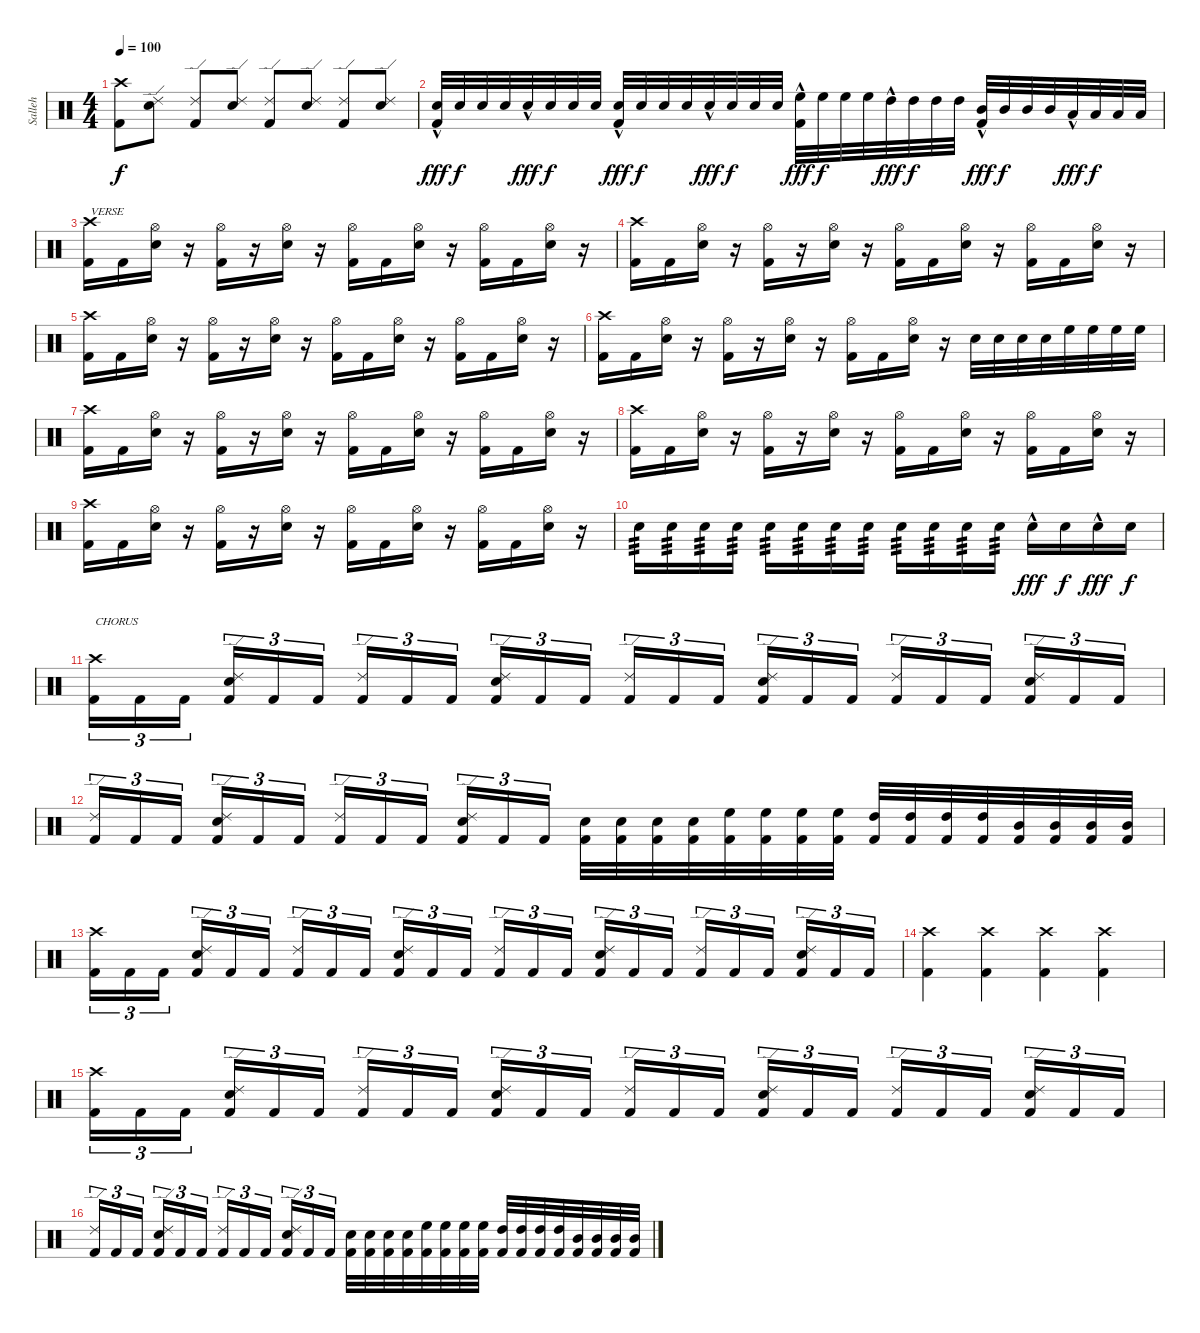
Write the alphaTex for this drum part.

\track ("Salleh" "Salleh") {instrument percussion}
\staff {score}
\articulation defaults
\ts (4 4)
\tempo 100
\clef neutral
\ks c
("Crash high (hit)" "Kick (hit) 2").8{dy f} ("Ride (edge) 2" "Electric Snare (hit)").8 ("Ride (edge) 2" "Kick (hit) 2").8 ("Ride (edge) 2" "Electric Snare (hit)").8 ("Ride (edge) 2" "Kick (hit) 2").8 ("Ride (edge) 2" "Electric Snare (hit)").8 ("Ride (edge) 2" "Kick (hit) 2").8 ("Ride (edge) 2" "Electric Snare (hit)").8 |
("Electric Snare (hit)"{hac} "Kick (hit) 2").32{dy fff} "Electric Snare (hit)".32{dy f} "Electric Snare (hit)".32 "Electric Snare (hit)".32 "Electric Snare (hit)"{hac}.32{dy fff} "Electric Snare (hit)".32{dy f} "Electric Snare (hit)".32 "Electric Snare (hit)".32 ("Electric Snare (hit)"{hac} "Kick (hit) 2").32{dy fff} "Electric Snare (hit)".32{dy f} "Electric Snare (hit)".32 "Electric Snare (hit)".32 "Electric Snare (hit)"{hac}.32{dy fff} "Electric Snare (hit)".32{dy f} "Electric Snare (hit)".32 "Electric Snare (hit)".32 ("High Floor Tom (hit)"{hac} "Kick (hit) 2").32{dy fff} "High Floor Tom (hit)".32{dy f} "High Floor Tom (hit)".32 "High Floor Tom (hit)".32 "High Tom (hit)"{hac}.32{dy fff} "High Tom (hit)".32{dy f} "High Tom (hit)".32 "High Tom (hit)".32 ("Mid Tom (hit)"{hac} "Kick (hit) 2").32{dy fff} "Mid Tom (hit)".32{dy f} "Mid Tom (hit)".32 "Mid Tom (hit)".32 "Low Tom (hit)"{hac}.32{dy fff} "Low Tom (hit)".32{dy f} "Low Tom (hit)".32 "Low Tom (hit)".32 |
("Crash high (hit)" "Kick (hit) 2").16{txt "VERSE"} "Kick (hit) 2".16 ("Hi-Hat (open)" "Electric Snare (hit)").16 r.16 ("Hi-Hat (open)" "Kick (hit) 2").16 r.16 ("Hi-Hat (open)" "Electric Snare (hit)").16 r.16 ("Hi-Hat (open)" "Kick (hit) 2").16 "Kick (hit) 2".16 ("Hi-Hat (open)" "Electric Snare (hit)").16 r.16 ("Hi-Hat (open)" "Kick (hit) 2").16 "Kick (hit) 2".16 ("Hi-Hat (open)" "Electric Snare (hit)").16 r.16 |
("Crash high (hit)" "Kick (hit) 2").16 "Kick (hit) 2".16 ("Hi-Hat (open)" "Electric Snare (hit)").16 r.16 ("Hi-Hat (open)" "Kick (hit) 2").16 r.16 ("Hi-Hat (open)" "Electric Snare (hit)").16 r.16 ("Hi-Hat (open)" "Kick (hit) 2").16 "Kick (hit) 2".16 ("Hi-Hat (open)" "Electric Snare (hit)").16 r.16 ("Hi-Hat (open)" "Kick (hit) 2").16 "Kick (hit) 2".16 ("Hi-Hat (open)" "Electric Snare (hit)").16 r.16 |
("Crash high (hit)" "Kick (hit) 2").16 "Kick (hit) 2".16 ("Hi-Hat (open)" "Electric Snare (hit)").16 r.16 ("Hi-Hat (open)" "Kick (hit) 2").16 r.16 ("Hi-Hat (open)" "Electric Snare (hit)").16 r.16 ("Hi-Hat (open)" "Kick (hit) 2").16 "Kick (hit) 2".16 ("Hi-Hat (open)" "Electric Snare (hit)").16 r.16 ("Hi-Hat (open)" "Kick (hit) 2").16 "Kick (hit) 2".16 ("Hi-Hat (open)" "Electric Snare (hit)").16 r.16 |
("Crash high (hit)" "Kick (hit) 2").16 "Kick (hit) 2".16 ("Hi-Hat (open)" "Electric Snare (hit)").16 r.16 ("Hi-Hat (open)" "Kick (hit) 2").16 r.16 ("Hi-Hat (open)" "Electric Snare (hit)").16 r.16 ("Hi-Hat (open)" "Kick (hit) 2").16 "Kick (hit) 2".16 ("Hi-Hat (open)" "Electric Snare (hit)").16 r.16 "Electric Snare (hit)".32 "Electric Snare (hit)".32 "Electric Snare (hit)".32 "Electric Snare (hit)".32 "High Floor Tom (hit)".32 "High Floor Tom (hit)".32 "High Floor Tom (hit)".32 "High Floor Tom (hit)".32 |
("Crash high (hit)" "Kick (hit) 2").16 "Kick (hit) 2".16 ("Hi-Hat (open)" "Electric Snare (hit)").16 r.16 ("Hi-Hat (open)" "Kick (hit) 2").16 r.16 ("Hi-Hat (open)" "Electric Snare (hit)").16 r.16 ("Hi-Hat (open)" "Kick (hit) 2").16 "Kick (hit) 2".16 ("Hi-Hat (open)" "Electric Snare (hit)").16 r.16 ("Hi-Hat (open)" "Kick (hit) 2").16 "Kick (hit) 2".16 ("Hi-Hat (open)" "Electric Snare (hit)").16 r.16 |
("Crash high (hit)" "Kick (hit) 2").16 "Kick (hit) 2".16 ("Hi-Hat (open)" "Electric Snare (hit)").16 r.16 ("Hi-Hat (open)" "Kick (hit) 2").16 r.16 ("Hi-Hat (open)" "Electric Snare (hit)").16 r.16 ("Hi-Hat (open)" "Kick (hit) 2").16 "Kick (hit) 2".16 ("Hi-Hat (open)" "Electric Snare (hit)").16 r.16 ("Hi-Hat (open)" "Kick (hit) 2").16 "Kick (hit) 2".16 ("Hi-Hat (open)" "Electric Snare (hit)").16 r.16 |
("Crash high (hit)" "Kick (hit) 2").16 "Kick (hit) 2".16 ("Hi-Hat (open)" "Electric Snare (hit)").16 r.16 ("Hi-Hat (open)" "Kick (hit) 2").16 r.16 ("Hi-Hat (open)" "Electric Snare (hit)").16 r.16 ("Hi-Hat (open)" "Kick (hit) 2").16 "Kick (hit) 2".16 ("Hi-Hat (open)" "Electric Snare (hit)").16 r.16 ("Hi-Hat (open)" "Kick (hit) 2").16 "Kick (hit) 2".16 ("Hi-Hat (open)" "Electric Snare (hit)").16 r.16 |
"Electric Snare (hit)".16{tp 3} "Electric Snare (hit)".16{tp 3} "Electric Snare (hit)".16{tp 3} "Electric Snare (hit)".16{tp 3} "Electric Snare (hit)".16{tp 3} "Electric Snare (hit)".16{tp 3} "Electric Snare (hit)".16{tp 3} "Electric Snare (hit)".16{tp 3} "Electric Snare (hit)".16{tp 3} "Electric Snare (hit)".16{tp 3} "Electric Snare (hit)".16{tp 3} "Electric Snare (hit)".16{tp 3} "Electric Snare (hit)"{hac}.16{dy fff} "Electric Snare (hit)".16{dy f} "Electric Snare (hit)"{hac}.16{dy fff} "Electric Snare (hit)".16{dy f} |
("Crash high (hit)" "Kick (hit) 2").16{tu (3 2) txt "CHORUS"} "Kick (hit) 2".16{tu (3 2)} "Kick (hit) 2".16{tu (3 2) beam splitsecondary} ("Ride (edge) 2" "Electric Snare (hit)" "Kick (hit) 2").16{tu (3 2)} "Kick (hit) 2".16{tu (3 2)} "Kick (hit) 2".16{tu (3 2)} ("Ride (edge) 2" "Kick (hit) 2").16{tu (3 2)} "Kick (hit) 2".16{tu (3 2)} "Kick (hit) 2".16{tu (3 2) beam splitsecondary} ("Ride (edge) 2" "Electric Snare (hit)" "Kick (hit) 2").16{tu (3 2)} "Kick (hit) 2".16{tu (3 2)} "Kick (hit) 2".16{tu (3 2)} ("Ride (edge) 2" "Kick (hit) 2").16{tu (3 2)} "Kick (hit) 2".16{tu (3 2)} "Kick (hit) 2".16{tu (3 2) beam splitsecondary} ("Ride (edge) 2" "Electric Snare (hit)" "Kick (hit) 2").16{tu (3 2)} "Kick (hit) 2".16{tu (3 2)} "Kick (hit) 2".16{tu (3 2)} ("Ride (edge) 2" "Kick (hit) 2").16{tu (3 2)} "Kick (hit) 2".16{tu (3 2)} "Kick (hit) 2".16{tu (3 2) beam splitsecondary} ("Ride (edge) 2" "Electric Snare (hit)" "Kick (hit) 2").16{tu (3 2)} "Kick (hit) 2".16{tu (3 2)} "Kick (hit) 2".16{tu (3 2)} |
("Ride (edge) 2" "Kick (hit) 2").16{tu (3 2)} "Kick (hit) 2".16{tu (3 2)} "Kick (hit) 2".16{tu (3 2) beam splitsecondary} ("Ride (edge) 2" "Electric Snare (hit)" "Kick (hit) 2").16{tu (3 2)} "Kick (hit) 2".16{tu (3 2)} "Kick (hit) 2".16{tu (3 2)} ("Ride (edge) 2" "Kick (hit) 2").16{tu (3 2)} "Kick (hit) 2".16{tu (3 2)} "Kick (hit) 2".16{tu (3 2) beam splitsecondary} ("Ride (edge) 2" "Electric Snare (hit)" "Kick (hit) 2").16{tu (3 2)} "Kick (hit) 2".16{tu (3 2)} "Kick (hit) 2".16{tu (3 2)} ("Electric Snare (hit)" "Kick (hit) 2").32 ("Electric Snare (hit)" "Kick (hit) 2").32 ("Electric Snare (hit)" "Kick (hit) 2").32 ("Electric Snare (hit)" "Kick (hit) 2").32 ("High Floor Tom (hit)" "Kick (hit) 2").32 ("High Floor Tom (hit)" "Kick (hit) 2").32 ("High Floor Tom (hit)" "Kick (hit) 2").32 ("High Floor Tom (hit)" "Kick (hit) 2").32 ("High Tom (hit)" "Kick (hit) 2").32 ("High Tom (hit)" "Kick (hit) 2").32 ("High Tom (hit)" "Kick (hit) 2").32 ("High Tom (hit)" "Kick (hit) 2").32 ("Mid Tom (hit)" "Kick (hit) 2").32 ("Mid Tom (hit)" "Kick (hit) 2").32 ("Mid Tom (hit)" "Kick (hit) 2").32 ("Mid Tom (hit)" "Kick (hit) 2").32 |
("Crash high (hit)" "Kick (hit) 2").16{tu (3 2)} "Kick (hit) 2".16{tu (3 2)} "Kick (hit) 2".16{tu (3 2) beam splitsecondary} ("Ride (edge) 2" "Electric Snare (hit)" "Kick (hit) 2").16{tu (3 2)} "Kick (hit) 2".16{tu (3 2)} "Kick (hit) 2".16{tu (3 2)} ("Ride (edge) 2" "Kick (hit) 2").16{tu (3 2)} "Kick (hit) 2".16{tu (3 2)} "Kick (hit) 2".16{tu (3 2) beam splitsecondary} ("Ride (edge) 2" "Electric Snare (hit)" "Kick (hit) 2").16{tu (3 2)} "Kick (hit) 2".16{tu (3 2)} "Kick (hit) 2".16{tu (3 2)} ("Ride (edge) 2" "Kick (hit) 2").16{tu (3 2)} "Kick (hit) 2".16{tu (3 2)} "Kick (hit) 2".16{tu (3 2) beam splitsecondary} ("Ride (edge) 2" "Electric Snare (hit)" "Kick (hit) 2").16{tu (3 2)} "Kick (hit) 2".16{tu (3 2)} "Kick (hit) 2".16{tu (3 2)} ("Ride (edge) 2" "Kick (hit) 2").16{tu (3 2)} "Kick (hit) 2".16{tu (3 2)} "Kick (hit) 2".16{tu (3 2) beam splitsecondary} ("Ride (edge) 2" "Electric Snare (hit)" "Kick (hit) 2").16{tu (3 2)} "Kick (hit) 2".16{tu (3 2)} "Kick (hit) 2".16{tu (3 2)} |
("Crash high (hit)" "Kick (hit) 2").4 ("Crash high (hit)" "Kick (hit) 2").4 ("Crash high (hit)" "Kick (hit) 2").4 ("Crash high (hit)" "Kick (hit) 2").4 |
("Crash high (hit)" "Kick (hit) 2").16{tu (3 2)} "Kick (hit) 2".16{tu (3 2)} "Kick (hit) 2".16{tu (3 2) beam splitsecondary} ("Ride (edge) 2" "Electric Snare (hit)" "Kick (hit) 2").16{tu (3 2)} "Kick (hit) 2".16{tu (3 2)} "Kick (hit) 2".16{tu (3 2)} ("Ride (edge) 2" "Kick (hit) 2").16{tu (3 2)} "Kick (hit) 2".16{tu (3 2)} "Kick (hit) 2".16{tu (3 2) beam splitsecondary} ("Ride (edge) 2" "Electric Snare (hit)" "Kick (hit) 2").16{tu (3 2)} "Kick (hit) 2".16{tu (3 2)} "Kick (hit) 2".16{tu (3 2)} ("Ride (edge) 2" "Kick (hit) 2").16{tu (3 2)} "Kick (hit) 2".16{tu (3 2)} "Kick (hit) 2".16{tu (3 2) beam splitsecondary} ("Ride (edge) 2" "Electric Snare (hit)" "Kick (hit) 2").16{tu (3 2)} "Kick (hit) 2".16{tu (3 2)} "Kick (hit) 2".16{tu (3 2)} ("Ride (edge) 2" "Kick (hit) 2").16{tu (3 2)} "Kick (hit) 2".16{tu (3 2)} "Kick (hit) 2".16{tu (3 2) beam splitsecondary} ("Ride (edge) 2" "Electric Snare (hit)" "Kick (hit) 2").16{tu (3 2)} "Kick (hit) 2".16{tu (3 2)} "Kick (hit) 2".16{tu (3 2)} |
("Ride (edge) 2" "Kick (hit) 2").16{tu (3 2)} "Kick (hit) 2".16{tu (3 2)} "Kick (hit) 2".16{tu (3 2) beam splitsecondary} ("Ride (edge) 2" "Electric Snare (hit)" "Kick (hit) 2").16{tu (3 2)} "Kick (hit) 2".16{tu (3 2)} "Kick (hit) 2".16{tu (3 2)} ("Ride (edge) 2" "Kick (hit) 2").16{tu (3 2)} "Kick (hit) 2".16{tu (3 2)} "Kick (hit) 2".16{tu (3 2) beam splitsecondary} ("Ride (edge) 2" "Electric Snare (hit)" "Kick (hit) 2").16{tu (3 2)} "Kick (hit) 2".16{tu (3 2)} "Kick (hit) 2".16{tu (3 2)} ("Electric Snare (hit)" "Kick (hit) 2").32 ("Electric Snare (hit)" "Kick (hit) 2").32 ("Electric Snare (hit)" "Kick (hit) 2").32 ("Electric Snare (hit)" "Kick (hit) 2").32 ("High Floor Tom (hit)" "Kick (hit) 2").32 ("High Floor Tom (hit)" "Kick (hit) 2").32 ("High Floor Tom (hit)" "Kick (hit) 2").32 ("High Floor Tom (hit)" "Kick (hit) 2").32 ("High Tom (hit)" "Kick (hit) 2").32 ("High Tom (hit)" "Kick (hit) 2").32 ("High Tom (hit)" "Kick (hit) 2").32 ("High Tom (hit)" "Kick (hit) 2").32 ("Mid Tom (hit)" "Kick (hit) 2").32 ("Mid Tom (hit)" "Kick (hit) 2").32 ("Mid Tom (hit)" "Kick (hit) 2").32 ("Mid Tom (hit)" "Kick (hit) 2").32
